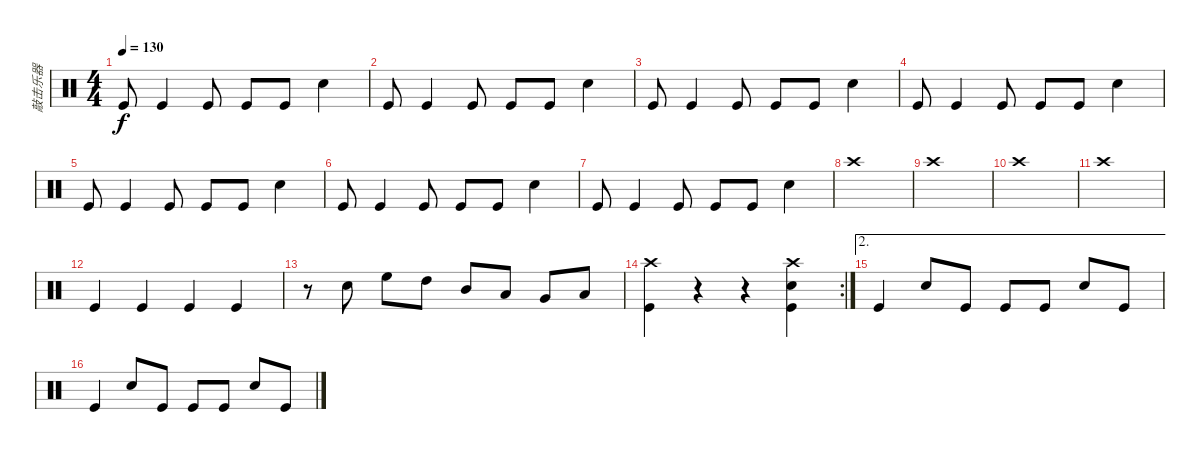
\track ("敲击乐器" "敲击乐器") {instrument percussion}
\staff {score}
\articulation defaults
\ts (4 4)
\tempo 130
\clef neutral
\ks c "Kick (hit)".8{dy f} "Kick (hit)".4 "Kick (hit)".8 "Kick (hit)".8 "Kick (hit)".8 "Snare (hit) 2".4
|
"Kick (hit)".8 "Kick (hit)".4 "Kick (hit)".8 "Kick (hit)".8 "Kick (hit)".8 "Snare (hit) 2".4 |
"Kick (hit)".8 "Kick (hit)".4 "Kick (hit)".8 "Kick (hit)".8 "Kick (hit)".8 "Snare (hit) 2".4 |
"Kick (hit)".8 "Kick (hit)".4 "Kick (hit)".8 "Kick (hit)".8 "Kick (hit)".8 "Snare (hit) 2".4 |
"Kick (hit)".8 "Kick (hit)".4 "Kick (hit)".8 "Kick (hit)".8 "Kick (hit)".8 "Snare (hit) 2".4 |
"Kick (hit)".8 "Kick (hit)".4 "Kick (hit)".8 "Kick (hit)".8 "Kick (hit)".8 "Snare (hit) 2".4 |
"Kick (hit)".8 "Kick (hit)".4 "Kick (hit)".8 "Kick (hit)".8 "Kick (hit)".8 "Snare (hit) 2".4 |
"Crash high (hit)".1 |
"Crash high (hit)".1 |
"Crash high (hit)".1 |
"Crash high (hit)".1 |
"Kick (hit)".4 "Kick (hit)".4 "Kick (hit)".4 "Kick (hit)".4 |
r.8 "Snare (hit) 2".8 "High Floor Tom (hit)".8 "High Tom (hit)".8 "Mid Tom (hit)".8 "Low Tom (hit)".8 "Very Low Tom (hit)".8 "Low Floor Tom (hit)".8 |
\rc 2
("Crash high (hit)" "Kick (hit)").4 r.4 r.4 ("Crash high (hit)" "Snare (hit) 2" "Kick (hit)").4 |
\ae 2 "Kick (hit)".4 "Snare (hit) 2".8 "Kick (hit)".8 "Kick (hit)".8 "Kick (hit)".8 "Snare (hit) 2".8 "Kick (hit)".8
|
"Kick (hit)".4 "Snare (hit) 2".8 "Kick (hit)".8 "Kick (hit)".8 "Kick (hit)".8 "Snare (hit) 2".8 "Kick (hit)".8
